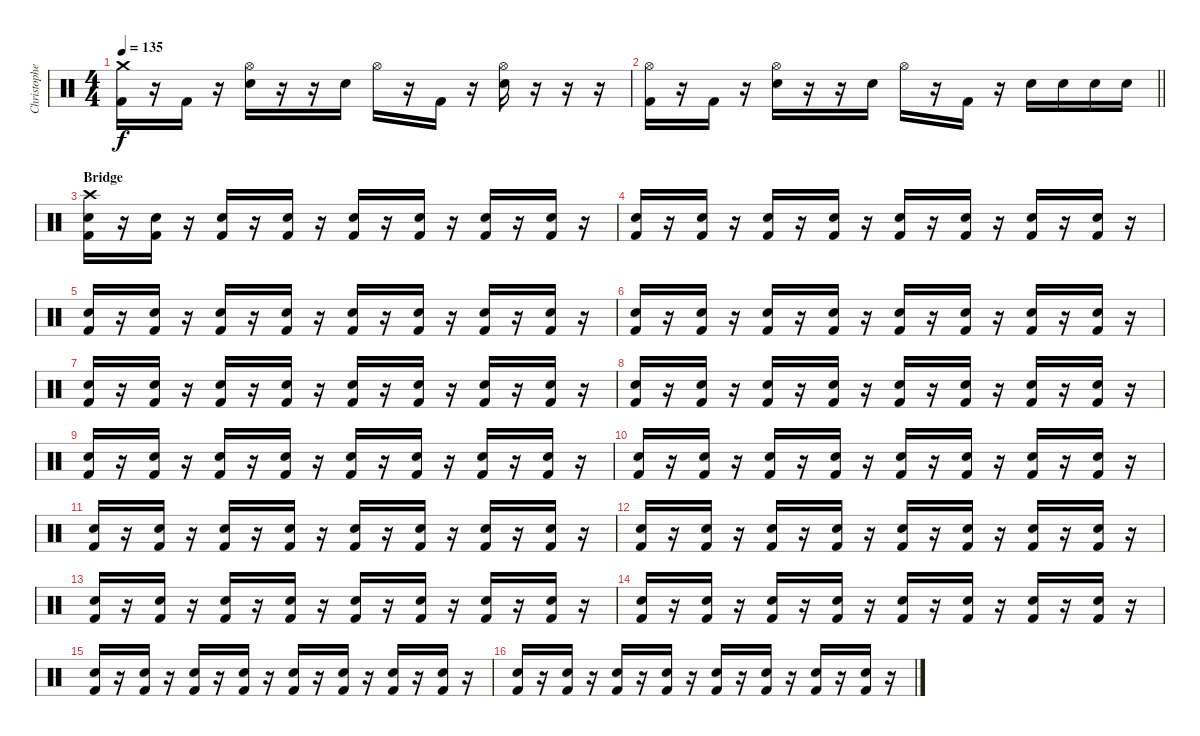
\track ("Christopher - Drums" "Christophe") {instrument percussion}
\staff {score}
\articulation defaults
\ts (4 4)
\tempo 135
\clef neutral
\ks c
("Crash medium (hit)" "Kick (hit) 2").16{dy f} r.16 "Kick (hit) 2".16 r.16 ("Hi-Hat (open)" "Electric Snare (hit)").16 r.16 r.16 "Electric Snare (hit)".16 "Hi-Hat (open)".16 r.16 "Kick (hit) 2".16 r.16 ("Hi-Hat (open)" "Electric Snare (hit)").16 r.16 r.16 r.16 |
\barLineRight lightlight
("Hi-Hat (open)" "Kick (hit) 2").16 r.16 "Kick (hit) 2".16 r.16 ("Hi-Hat (open)" "Electric Snare (hit)").16 r.16 r.16 "Electric Snare (hit)".16 "Hi-Hat (open)".16 r.16 "Kick (hit) 2".16 r.16 "Electric Snare (hit)".16 "Electric Snare (hit)".16 "Electric Snare (hit)".16 "Electric Snare (hit)".16 |
\section ("" "Bridge")
("Crash high (hit)" "Electric Snare (hit)" "Kick (hit) 2").16 r.16 ("Electric Snare (hit)" "Kick (hit) 2").16 r.16 ("Electric Snare (hit)" "Kick (hit) 2").16 r.16 ("Electric Snare (hit)" "Kick (hit) 2").16 r.16 ("Electric Snare (hit)" "Kick (hit) 2").16 r.16 ("Electric Snare (hit)" "Kick (hit) 2").16 r.16 ("Electric Snare (hit)" "Kick (hit) 2").16 r.16 ("Electric Snare (hit)" "Kick (hit) 2").16 r.16 |
("Electric Snare (hit)" "Kick (hit) 2").16 r.16 ("Electric Snare (hit)" "Kick (hit) 2").16 r.16 ("Electric Snare (hit)" "Kick (hit) 2").16 r.16 ("Electric Snare (hit)" "Kick (hit) 2").16 r.16 ("Electric Snare (hit)" "Kick (hit) 2").16 r.16 ("Electric Snare (hit)" "Kick (hit) 2").16 r.16 ("Electric Snare (hit)" "Kick (hit) 2").16 r.16 ("Electric Snare (hit)" "Kick (hit) 2").16 r.16 |
("Electric Snare (hit)" "Kick (hit) 2").16 r.16 ("Electric Snare (hit)" "Kick (hit) 2").16 r.16 ("Electric Snare (hit)" "Kick (hit) 2").16 r.16 ("Electric Snare (hit)" "Kick (hit) 2").16 r.16 ("Electric Snare (hit)" "Kick (hit) 2").16 r.16 ("Electric Snare (hit)" "Kick (hit) 2").16 r.16 ("Electric Snare (hit)" "Kick (hit) 2").16 r.16 ("Electric Snare (hit)" "Kick (hit) 2").16 r.16 |
("Electric Snare (hit)" "Kick (hit) 2").16 r.16 ("Electric Snare (hit)" "Kick (hit) 2").16 r.16 ("Electric Snare (hit)" "Kick (hit) 2").16 r.16 ("Electric Snare (hit)" "Kick (hit) 2").16 r.16 ("Electric Snare (hit)" "Kick (hit) 2").16 r.16 ("Electric Snare (hit)" "Kick (hit) 2").16 r.16 ("Electric Snare (hit)" "Kick (hit) 2").16 r.16 ("Electric Snare (hit)" "Kick (hit) 2").16 r.16 |
("Electric Snare (hit)" "Kick (hit) 2").16 r.16 ("Electric Snare (hit)" "Kick (hit) 2").16 r.16 ("Electric Snare (hit)" "Kick (hit) 2").16 r.16 ("Electric Snare (hit)" "Kick (hit) 2").16 r.16 ("Electric Snare (hit)" "Kick (hit) 2").16 r.16 ("Electric Snare (hit)" "Kick (hit) 2").16 r.16 ("Electric Snare (hit)" "Kick (hit) 2").16 r.16 ("Electric Snare (hit)" "Kick (hit) 2").16 r.16 |
("Electric Snare (hit)" "Kick (hit) 2").16 r.16 ("Electric Snare (hit)" "Kick (hit) 2").16 r.16 ("Electric Snare (hit)" "Kick (hit) 2").16 r.16 ("Electric Snare (hit)" "Kick (hit) 2").16 r.16 ("Electric Snare (hit)" "Kick (hit) 2").16 r.16 ("Electric Snare (hit)" "Kick (hit) 2").16 r.16 ("Electric Snare (hit)" "Kick (hit) 2").16 r.16 ("Electric Snare (hit)" "Kick (hit) 2").16 r.16 |
("Electric Snare (hit)" "Kick (hit) 2").16 r.16 ("Electric Snare (hit)" "Kick (hit) 2").16 r.16 ("Electric Snare (hit)" "Kick (hit) 2").16 r.16 ("Electric Snare (hit)" "Kick (hit) 2").16 r.16 ("Electric Snare (hit)" "Kick (hit) 2").16 r.16 ("Electric Snare (hit)" "Kick (hit) 2").16 r.16 ("Electric Snare (hit)" "Kick (hit) 2").16 r.16 ("Electric Snare (hit)" "Kick (hit) 2").16 r.16 |
("Electric Snare (hit)" "Kick (hit) 2").16 r.16 ("Electric Snare (hit)" "Kick (hit) 2").16 r.16 ("Electric Snare (hit)" "Kick (hit) 2").16 r.16 ("Electric Snare (hit)" "Kick (hit) 2").16 r.16 ("Electric Snare (hit)" "Kick (hit) 2").16 r.16 ("Electric Snare (hit)" "Kick (hit) 2").16 r.16 ("Electric Snare (hit)" "Kick (hit) 2").16 r.16 ("Electric Snare (hit)" "Kick (hit) 2").16 r.16 |
("Electric Snare (hit)" "Kick (hit) 2").16 r.16 ("Electric Snare (hit)" "Kick (hit) 2").16 r.16 ("Electric Snare (hit)" "Kick (hit) 2").16 r.16 ("Electric Snare (hit)" "Kick (hit) 2").16 r.16 ("Electric Snare (hit)" "Kick (hit) 2").16 r.16 ("Electric Snare (hit)" "Kick (hit) 2").16 r.16 ("Electric Snare (hit)" "Kick (hit) 2").16 r.16 ("Electric Snare (hit)" "Kick (hit) 2").16 r.16 |
("Electric Snare (hit)" "Kick (hit) 2").16 r.16 ("Electric Snare (hit)" "Kick (hit) 2").16 r.16 ("Electric Snare (hit)" "Kick (hit) 2").16 r.16 ("Electric Snare (hit)" "Kick (hit) 2").16 r.16 ("Electric Snare (hit)" "Kick (hit) 2").16 r.16 ("Electric Snare (hit)" "Kick (hit) 2").16 r.16 ("Electric Snare (hit)" "Kick (hit) 2").16 r.16 ("Electric Snare (hit)" "Kick (hit) 2").16 r.16 |
("Electric Snare (hit)" "Kick (hit) 2").16 r.16 ("Electric Snare (hit)" "Kick (hit) 2").16 r.16 ("Electric Snare (hit)" "Kick (hit) 2").16 r.16 ("Electric Snare (hit)" "Kick (hit) 2").16 r.16 ("Electric Snare (hit)" "Kick (hit) 2").16 r.16 ("Electric Snare (hit)" "Kick (hit) 2").16 r.16 ("Electric Snare (hit)" "Kick (hit) 2").16 r.16 ("Electric Snare (hit)" "Kick (hit) 2").16 r.16 |
("Electric Snare (hit)" "Kick (hit) 2").16 r.16 ("Electric Snare (hit)" "Kick (hit) 2").16 r.16 ("Electric Snare (hit)" "Kick (hit) 2").16 r.16 ("Electric Snare (hit)" "Kick (hit) 2").16 r.16 ("Electric Snare (hit)" "Kick (hit) 2").16 r.16 ("Electric Snare (hit)" "Kick (hit) 2").16 r.16 ("Electric Snare (hit)" "Kick (hit) 2").16 r.16 ("Electric Snare (hit)" "Kick (hit) 2").16 r.16 |
("Electric Snare (hit)" "Kick (hit) 2").16 r.16 ("Electric Snare (hit)" "Kick (hit) 2").16 r.16 ("Electric Snare (hit)" "Kick (hit) 2").16 r.16 ("Electric Snare (hit)" "Kick (hit) 2").16 r.16 ("Electric Snare (hit)" "Kick (hit) 2").16 r.16 ("Electric Snare (hit)" "Kick (hit) 2").16 r.16 ("Electric Snare (hit)" "Kick (hit) 2").16 r.16 ("Electric Snare (hit)" "Kick (hit) 2").16 r.16 |
("Electric Snare (hit)" "Kick (hit) 2").16 r.16 ("Electric Snare (hit)" "Kick (hit) 2").16 r.16 ("Electric Snare (hit)" "Kick (hit) 2").16 r.16 ("Electric Snare (hit)" "Kick (hit) 2").16 r.16 ("Electric Snare (hit)" "Kick (hit) 2").16 r.16 ("Electric Snare (hit)" "Kick (hit) 2").16 r.16 ("Electric Snare (hit)" "Kick (hit) 2").16 r.16 ("Electric Snare (hit)" "Kick (hit) 2").16 r.16
